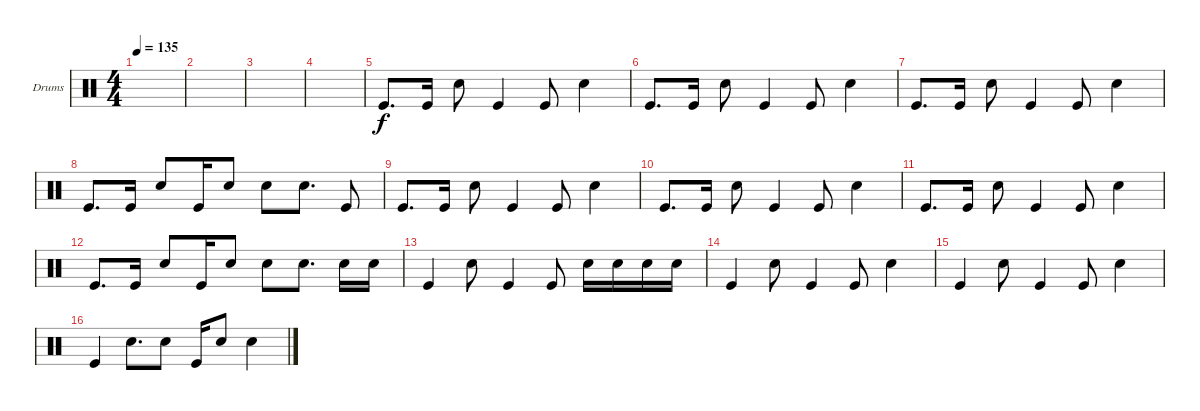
\defaultSystemsLayout 4
\bracketExtendMode groupsimilarinstruments
\firstSystemTrackNameOrientation horizontal
\otherSystemsTrackNameOrientation horizontal
\track ("Helders" "Drums") {instrument percussion}
\staff {score}
\articulation defaults
\ts (4 4)
\tempo 135
\clef neutral
\ks c
|
|
|
|
"Kick (hit)".8{d} "Kick (hit)".16 "Snare (hit) 2".8 "Kick (hit)".4 "Kick (hit)".8 "Snare (hit) 2".4 |
"Kick (hit)".8{d} "Kick (hit)".16 "Snare (hit) 2".8 "Kick (hit)".4 "Kick (hit)".8 "Snare (hit) 2".4 |
"Kick (hit)".8{d} "Kick (hit)".16 "Snare (hit) 2".8 "Kick (hit)".4 "Kick (hit)".8 "Snare (hit) 2".4 |
"Kick (hit)".8{d} "Kick (hit)".16 "Snare (hit) 2".8 "Kick (hit)".16 "Snare (hit) 2".8 "Snare (hit) 2".8 "Snare (hit) 2".8{d} "Kick (hit)".8 |
"Kick (hit)".8{d} "Kick (hit)".16 "Snare (hit) 2".8 "Kick (hit)".4 "Kick (hit)".8 "Snare (hit) 2".4 |
"Kick (hit)".8{d} "Kick (hit)".16 "Snare (hit) 2".8 "Kick (hit)".4 "Kick (hit)".8 "Snare (hit) 2".4 |
"Kick (hit)".8{d} "Kick (hit)".16 "Snare (hit) 2".8 "Kick (hit)".4 "Kick (hit)".8 "Snare (hit) 2".4 |
"Kick (hit)".8{d} "Kick (hit)".16 "Snare (hit) 2".8 "Kick (hit)".16 "Snare (hit) 2".8 "Snare (hit) 2".8 "Snare (hit) 2".8{d} "Snare (hit) 2".16 "Snare (hit) 2".16 |
"Kick (hit)".4 "Snare (hit) 2".8 "Kick (hit)".4 "Kick (hit)".8 "Snare (hit) 2".16 "Snare (hit) 2".16 "Snare (hit) 2".16 "Snare (hit) 2".16 |
"Kick (hit)".4 "Snare (hit) 2".8 "Kick (hit)".4 "Kick (hit)".8 "Snare (hit) 2".4 |
"Kick (hit)".4 "Snare (hit) 2".8 "Kick (hit)".4 "Kick (hit)".8 "Snare (hit) 2".4 |
"Kick (hit)".4 "Snare (hit) 2".8{d} "Snare (hit) 2".8 "Kick (hit)".16 "Snare (hit) 2".8 "Snare (hit) 2".4
